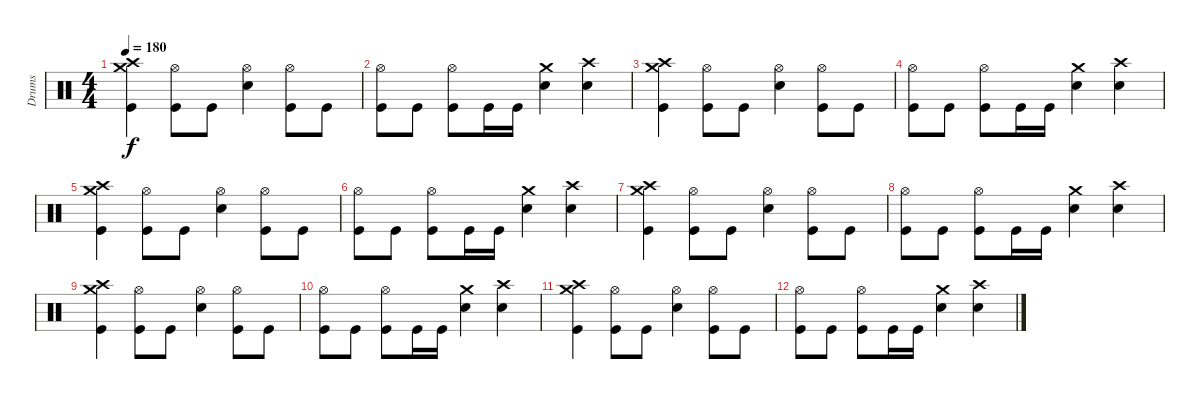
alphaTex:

\track ("Drums" "Drums") {instrument percussion}
\staff {score}
\articulation defaults
\ts (4 4)
\tempo 180
\clef neutral
\ks c
("Crash medium (hit)" "Crash high (hit)" "Kick (hit)").4{dy f} ("Hi-Hat (open)" "Kick (hit)").8 "Kick (hit)".8 ("Hi-Hat (open)" "Electric Snare (hit)").4 ("Hi-Hat (open)" "Kick (hit)").8 "Kick (hit)".8 |
("Hi-Hat (open)" "Kick (hit)").8 "Kick (hit)".8 ("Hi-Hat (open)" "Kick (hit)").8 "Kick (hit)".16 "Kick (hit)".16 ("Crash medium (hit)" "Electric Snare (hit)").4 ("Crash high (hit)" "Electric Snare (hit)").4 |
("Crash medium (hit)" "Crash high (hit)" "Kick (hit)").4 ("Hi-Hat (open)" "Kick (hit)").8 "Kick (hit)".8 ("Hi-Hat (open)" "Electric Snare (hit)").4 ("Hi-Hat (open)" "Kick (hit)").8 "Kick (hit)".8 |
("Hi-Hat (open)" "Kick (hit)").8 "Kick (hit)".8 ("Hi-Hat (open)" "Kick (hit)").8 "Kick (hit)".16 "Kick (hit)".16 ("Crash medium (hit)" "Electric Snare (hit)").4 ("Crash high (hit)" "Electric Snare (hit)").4 |
("Crash medium (hit)" "Crash high (hit)" "Kick (hit)").4 ("Hi-Hat (open)" "Kick (hit)").8 "Kick (hit)".8 ("Hi-Hat (open)" "Electric Snare (hit)").4 ("Hi-Hat (open)" "Kick (hit)").8 "Kick (hit)".8 |
("Hi-Hat (open)" "Kick (hit)").8 "Kick (hit)".8 ("Hi-Hat (open)" "Kick (hit)").8 "Kick (hit)".16 "Kick (hit)".16 ("Crash medium (hit)" "Electric Snare (hit)").4 ("Crash high (hit)" "Electric Snare (hit)").4 |
("Crash medium (hit)" "Crash high (hit)" "Kick (hit)").4 ("Hi-Hat (open)" "Kick (hit)").8 "Kick (hit)".8 ("Hi-Hat (open)" "Electric Snare (hit)").4 ("Hi-Hat (open)" "Kick (hit)").8 "Kick (hit)".8 |
("Hi-Hat (open)" "Kick (hit)").8 "Kick (hit)".8 ("Hi-Hat (open)" "Kick (hit)").8 "Kick (hit)".16 "Kick (hit)".16 ("Crash medium (hit)" "Electric Snare (hit)").4 ("Crash high (hit)" "Electric Snare (hit)").4 |
("Crash medium (hit)" "Crash high (hit)" "Kick (hit)").4 ("Hi-Hat (open)" "Kick (hit)").8 "Kick (hit)".8 ("Hi-Hat (open)" "Electric Snare (hit)").4 ("Hi-Hat (open)" "Kick (hit)").8 "Kick (hit)".8 |
("Hi-Hat (open)" "Kick (hit)").8 "Kick (hit)".8 ("Hi-Hat (open)" "Kick (hit)").8 "Kick (hit)".16 "Kick (hit)".16 ("Crash medium (hit)" "Electric Snare (hit)").4 ("Crash high (hit)" "Electric Snare (hit)").4 |
("Crash medium (hit)" "Crash high (hit)" "Kick (hit)").4 ("Hi-Hat (open)" "Kick (hit)").8 "Kick (hit)".8 ("Hi-Hat (open)" "Electric Snare (hit)").4 ("Hi-Hat (open)" "Kick (hit)").8 "Kick (hit)".8 |
("Hi-Hat (open)" "Kick (hit)").8 "Kick (hit)".8 ("Hi-Hat (open)" "Kick (hit)").8 "Kick (hit)".16 "Kick (hit)".16 ("Crash medium (hit)" "Electric Snare (hit)").4 ("Crash high (hit)" "Electric Snare (hit)").4
